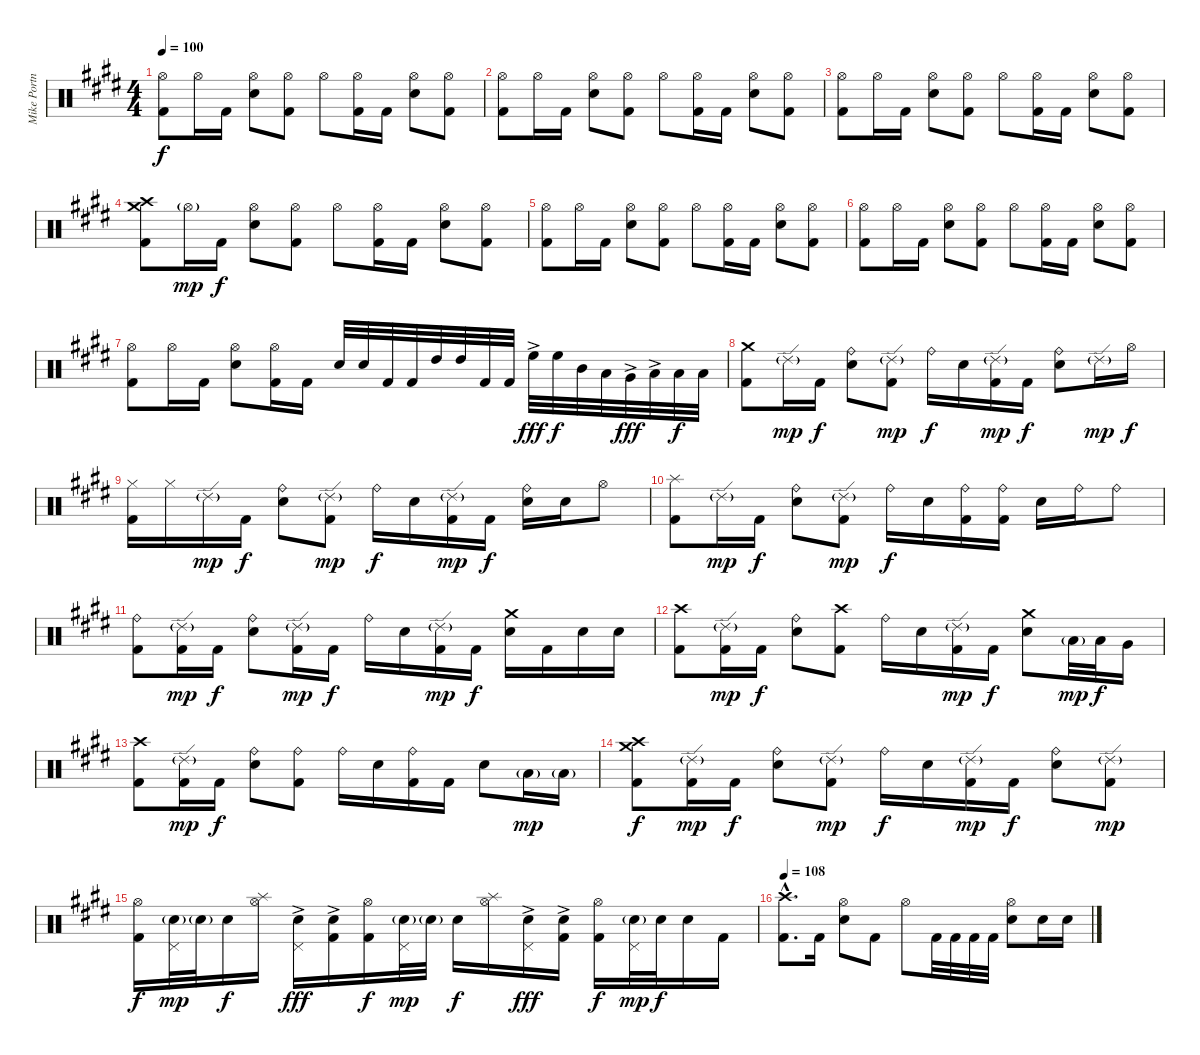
\track ("Mike Portnoy" "Mike Portn") {instrument percussion}
\staff {score}
\articulation defaults
\ts (4 4)
\tempo 100
\clef neutral
\ks e
("Hi-Hat (open)" "Kick (hit) 2").8{dy f} "Hi-Hat (open)".16 "Kick (hit) 2".16 ("Hi-Hat (open)" "Snare (hit) 2").8 ("Hi-Hat (open)" "Kick (hit) 2").8 "Hi-Hat (open)".8 ("Hi-Hat (open)" "Kick (hit) 2").16 "Kick (hit) 2".16 ("Hi-Hat (open)" "Snare (hit) 2").8 ("Hi-Hat (open)" "Kick (hit) 2").8 |
("Hi-Hat (open)" "Kick (hit) 2").8 "Hi-Hat (open)".16 "Kick (hit) 2".16 ("Hi-Hat (open)" "Snare (hit) 2").8 ("Hi-Hat (open)" "Kick (hit) 2").8 "Hi-Hat (open)".8 ("Hi-Hat (open)" "Kick (hit) 2").16 "Kick (hit) 2".16 ("Hi-Hat (open)" "Snare (hit) 2").8 ("Hi-Hat (open)" "Kick (hit) 2").8 |
("Hi-Hat (open)" "Kick (hit) 2").8 "Hi-Hat (open)".16 "Kick (hit) 2".16 ("Hi-Hat (open)" "Snare (hit) 2").8 ("Hi-Hat (open)" "Kick (hit) 2").8 "Hi-Hat (open)".8 ("Hi-Hat (open)" "Kick (hit) 2").16 "Kick (hit) 2".16 ("Hi-Hat (open)" "Snare (hit) 2").8 ("Hi-Hat (open)" "Kick (hit) 2").8 |
("Crash high (hit)" "Crash medium (hit)" "Kick (hit) 2").8 "Hi-Hat (open)"{g}.16{dy mp} "Kick (hit) 2".16{dy f} ("Hi-Hat (open)" "Snare (hit) 2").8 ("Hi-Hat (open)" "Kick (hit) 2").8 "Hi-Hat (open)".8 ("Hi-Hat (open)" "Kick (hit) 2").16 "Kick (hit) 2".16 ("Hi-Hat (open)" "Snare (hit) 2").8 ("Hi-Hat (open)" "Kick (hit) 2").8 |
("Hi-Hat (open)" "Kick (hit) 2").8 "Hi-Hat (open)".16 "Kick (hit) 2".16 ("Hi-Hat (open)" "Snare (hit) 2").8 ("Hi-Hat (open)" "Kick (hit) 2").8 "Hi-Hat (open)".8 ("Hi-Hat (open)" "Kick (hit) 2").16 "Kick (hit) 2".16 ("Hi-Hat (open)" "Snare (hit) 2").8 ("Hi-Hat (open)" "Kick (hit) 2").8 |
("Hi-Hat (open)" "Kick (hit) 2").8 "Hi-Hat (open)".16 "Kick (hit) 2".16 ("Hi-Hat (open)" "Snare (hit) 2").8 ("Hi-Hat (open)" "Kick (hit) 2").8 "Hi-Hat (open)".8 ("Hi-Hat (open)" "Kick (hit) 2").16 "Kick (hit) 2".16 ("Hi-Hat (open)" "Snare (hit) 2").8 ("Hi-Hat (open)" "Kick (hit) 2").8 |
("Hi-Hat (open)" "Kick (hit) 2").8 "Hi-Hat (open)".16 "Kick (hit) 2".16 ("Hi-Hat (open)" "Snare (hit) 2").8 ("Hi-Hat (open)" "Kick (hit) 2").16 "Kick (hit) 2".16 "Snare (hit) 2".32 "Snare (hit) 2".32 "Kick (hit) 2".32 "Kick (hit) 2".32 "High Tom (hit)".32 "High Tom (hit)".32 "Kick (hit) 2".32 "Kick (hit) 2".32 "High Floor Tom (hit)"{ac}.32{dy fff} "High Floor Tom (hit)".32{dy f} "Mid Tom (hit)".32 "Low Tom (hit)".32 "Very Low Tom (hit)"{ac}.32{dy fff} "Low Floor Tom (hit)"{ac}.32 "Low Floor Tom (hit)".32{dy f} "Low Floor Tom (hit)".32 |
("Crash medium (hit)" "Kick (hit) 2").8 "Ride (edge) 2"{g}.16{dy mp} "Kick (hit) 2".16{dy f} ("Ride (bell)" "Snare (hit) 2").8 ("Ride (edge) 2"{g} "Kick (hit) 2").8{dy mp} "Ride (bell)".16{dy f} "Snare (hit) 2".16 ("Ride (edge) 2"{g} "Kick (hit) 2").16{dy mp} "Kick (hit) 2".16{dy f} ("Ride (bell)" "Snare (hit) 2").8 "Ride (edge) 2"{g}.16{dy mp} "Hi-Hat (open)".16{dy f} |
("Hi-Hat (closed)" "Kick (hit) 2").16 "Hi-Hat (closed)".16 "Ride (edge) 2"{g}.16{dy mp} "Kick (hit) 2".16{dy f} ("Ride (bell)" "Snare (hit) 2").8 ("Ride (edge) 2"{g} "Kick (hit) 2").8{dy mp} "Ride (bell)".16{dy f} "Snare (hit) 2".16 ("Ride (edge) 2"{g} "Kick (hit) 2").16{dy mp} "Kick (hit) 2".16{dy f} ("Ride (bell)" "Snare (hit) 2").16 "Snare (hit) 2".16 "Hi-Hat (open)".8 |
("Splash (hit)" "Kick (hit) 2").8 "Ride (edge) 2"{g}.16{dy mp} "Kick (hit) 2".16{dy f} ("Ride (bell)" "Snare (hit) 2").8 ("Ride (edge) 2"{g} "Kick (hit) 2").8{dy mp} "Ride (bell)".16{dy f} "Snare (hit) 2".16 ("Ride (bell)" "Kick (hit) 2").16 ("Ride (bell)" "Kick (hit) 2").16 "Snare (hit) 2".16 "Ride (bell)".16 "Ride (bell)".8 |
("Ride (bell)" "Kick (hit) 2").8 ("Ride (edge) 2"{g} "Kick (hit) 2").16{dy mp} "Kick (hit) 2".16{dy f} ("Ride (bell)" "Snare (hit) 2").8 ("Ride (edge) 2"{g} "Kick (hit) 2").16{dy mp} "Kick (hit) 2".16{dy f} "Ride (bell)".16 "Snare (hit) 2".16 ("Ride (edge) 2"{g} "Kick (hit) 2").16{dy mp} "Kick (hit) 2".16{dy f} ("Crash medium (hit)" "Snare (hit) 2").16 "Kick (hit) 2".16 "Snare (hit) 2".16 "Snare (hit) 2".16 |
("Crash high (hit)" "Kick (hit) 2").8 ("Ride (edge) 2"{g} "Kick (hit) 2").16{dy mp} "Kick (hit) 2".16{dy f} ("Ride (bell)" "Snare (hit) 2").8 ("Crash high (hit)" "Kick (hit) 2").8 "Ride (bell)".16 "Snare (hit) 2".16 ("Ride (edge) 2"{g} "Kick (hit) 2").16{dy mp} "Kick (hit) 2".16{dy f} ("Crash medium (hit)" "Snare (hit) 2").8 "Low Tom (hit)"{g}.32{dy mp} "Low Tom (hit)".32{dy f} "Very Low Tom (hit)".16 |
("Crash high (hit)" "Kick (hit) 2").8 ("Ride (edge) 2"{g} "Kick (hit) 2").16{dy mp} "Kick (hit) 2".16{dy f} ("Ride (bell)" "Snare (hit) 2").8 ("Ride (bell)" "Kick (hit) 2").8 "Ride (bell)".16 "Snare (hit) 2".16 ("Ride (bell)" "Kick (hit) 2").16 "Kick (hit) 2".16 "Snare (hit) 2".8 "Low Floor Tom (hit)"{g}.16{dy mp} "Low Floor Tom (hit)"{g}.16 |
("Crash high (hit)" "Crash medium (hit)" "Kick (hit) 2").8{dy f} ("Ride (edge) 2"{g} "Kick (hit) 2").16{dy mp} "Kick (hit) 2".16{dy f} ("Ride (bell)" "Snare (hit) 2").8 ("Ride (edge) 2"{g} "Kick (hit) 2").8{dy mp} "Ride (bell)".16{dy f} "Snare (hit) 2".16 ("Ride (edge) 2"{g} "Kick (hit) 2").16{dy mp} "Kick (hit) 2".16{dy f} ("Ride (bell)" "Snare (hit) 2").8 ("Ride (edge) 2"{g} "Kick (hit) 2").8{dy mp} |
("Hi-Hat (open)" "Kick (hit) 2").16{dy f} ("Snare (hit) 2"{g} "Pedal Hi-Hat (hit)").32{dy mp} "Snare (hit) 2"{g}.32 "Snare (hit) 2".16{dy f} ("Hi-Hat (open)" "Splash (hit)").16 ("Snare (hit) 2"{ac} "Pedal Hi-Hat (hit)").16{dy fff} ("Snare (hit) 2"{ac} "Kick (hit) 2").16 ("Hi-Hat (open)" "Kick (hit) 2").16{dy f} ("Snare (hit) 2"{g} "Pedal Hi-Hat (hit)").32{dy mp} "Snare (hit) 2"{g}.32 "Snare (hit) 2".16{dy f} ("Hi-Hat (open)" "Splash (hit)").16 ("Snare (hit) 2"{ac} "Pedal Hi-Hat (hit)").16{dy fff} ("Snare (hit) 2"{ac} "Kick (hit) 2").16 ("Hi-Hat (open)" "Kick (hit) 2").16{dy f} ("Snare (hit) 2"{g} "Pedal Hi-Hat (hit)").32{dy mp} "Snare (hit) 2".32{dy f} "Snare (hit) 2".16 "Kick (hit) 2".16 |
\tempo 108
("Crash high (hit)"{hac} "Kick (hit) 2"{hac}).8{d} "Kick (hit) 2".16 ("Hi-Hat (open)" "Snare (hit) 2").8 "Kick (hit) 2".8 "Hi-Hat (open)".8 "Kick (hit) 2".32 "Kick (hit) 2".32 "Kick (hit) 2".32 "Kick (hit) 2".32 ("Hi-Hat (open)" "Snare (hit) 2").8 "Snare (hit) 2".16 "Snare (hit) 2".16
